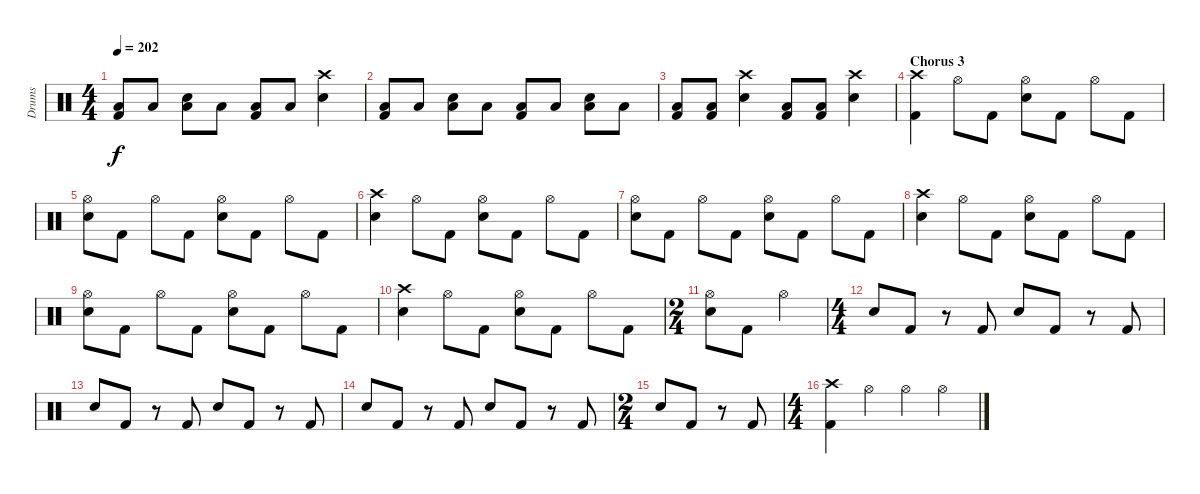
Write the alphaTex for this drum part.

\track ("Drums" "Drums") {instrument percussion}
\staff {score}
\articulation defaults
\ts (4 4)
\tempo 202
\clef neutral
\ks c
("Low Floor Tom (hit)" "Kick (hit) 2").8{dy f} "Low Floor Tom (hit)".8 ("Low Floor Tom (hit)" "Electric Snare (hit)").8 "Low Floor Tom (hit)".8 ("Low Floor Tom (hit)" "Kick (hit) 2").8 "Low Floor Tom (hit)".8 ("Crash high (hit)" "Electric Snare (hit)").4 |
("Low Floor Tom (hit)" "Kick (hit) 2").8 "Low Floor Tom (hit)".8 ("Low Floor Tom (hit)" "Electric Snare (hit)").8 "Low Floor Tom (hit)".8 ("Low Floor Tom (hit)" "Kick (hit) 2").8 "Low Floor Tom (hit)".8 ("Low Floor Tom (hit)" "Electric Snare (hit)").8 "Low Floor Tom (hit)".8 |
("Low Floor Tom (hit)" "Kick (hit) 2").8 ("Low Floor Tom (hit)" "Kick (hit) 2").8 ("Crash high (hit)" "Electric Snare (hit)").4 ("Low Floor Tom (hit)" "Kick (hit) 2").8 ("Low Floor Tom (hit)" "Kick (hit) 2").8 ("Crash high (hit)" "Electric Snare (hit)").4 |
\section ("" "Chorus 3")
("Crash high (hit)" "Kick (hit) 2").4 "Hi-Hat (open)".8 "Kick (hit) 2".8 ("Hi-Hat (open)" "Electric Snare (hit)").8 "Kick (hit) 2".8 "Hi-Hat (open)".8 "Kick (hit) 2".8 |
("Hi-Hat (open)" "Electric Snare (hit)").8 "Kick (hit) 2".8 "Hi-Hat (open)".8 "Kick (hit) 2".8 ("Hi-Hat (open)" "Electric Snare (hit)").8 "Kick (hit) 2".8 "Hi-Hat (open)".8 "Kick (hit) 2".8 |
("Crash high (hit)" "Electric Snare (hit)").4 "Hi-Hat (open)".8 "Kick (hit) 2".8 ("Hi-Hat (open)" "Electric Snare (hit)").8 "Kick (hit) 2".8 "Hi-Hat (open)".8 "Kick (hit) 2".8 |
("Hi-Hat (open)" "Electric Snare (hit)").8 "Kick (hit) 2".8 "Hi-Hat (open)".8 "Kick (hit) 2".8 ("Hi-Hat (open)" "Electric Snare (hit)").8 "Kick (hit) 2".8 "Hi-Hat (open)".8 "Kick (hit) 2".8 |
("Crash high (hit)" "Electric Snare (hit)").4 "Hi-Hat (open)".8 "Kick (hit) 2".8 ("Hi-Hat (open)" "Electric Snare (hit)").8 "Kick (hit) 2".8 "Hi-Hat (open)".8 "Kick (hit) 2".8 |
("Hi-Hat (open)" "Electric Snare (hit)").8 "Kick (hit) 2".8 "Hi-Hat (open)".8 "Kick (hit) 2".8 ("Hi-Hat (open)" "Electric Snare (hit)").8 "Kick (hit) 2".8 "Hi-Hat (open)".8 "Kick (hit) 2".8 |
("Crash high (hit)" "Electric Snare (hit)").4 "Hi-Hat (open)".8 "Kick (hit) 2".8 ("Hi-Hat (open)" "Electric Snare (hit)").8 "Kick (hit) 2".8 "Hi-Hat (open)".8 "Kick (hit) 2".8 |
\ts (2 4)
("Hi-Hat (open)" "Electric Snare (hit)").8 "Kick (hit) 2".8 "Hi-Hat (open)".4 |
\ts (4 4)
"Electric Snare (hit)".8 "Kick (hit) 2".8 r.8 "Kick (hit) 2".8 "Electric Snare (hit)".8 "Kick (hit) 2".8 r.8 "Kick (hit) 2".8 |
"Electric Snare (hit)".8 "Kick (hit) 2".8 r.8 "Kick (hit) 2".8 "Electric Snare (hit)".8 "Kick (hit) 2".8 r.8 "Kick (hit) 2".8 |
"Electric Snare (hit)".8 "Kick (hit) 2".8 r.8 "Kick (hit) 2".8 "Electric Snare (hit)".8 "Kick (hit) 2".8 r.8 "Kick (hit) 2".8 |
\ts (2 4)
"Electric Snare (hit)".8 "Kick (hit) 2".8 r.8 "Kick (hit) 2".8 |
\ts (4 4)
("Crash high (hit)" "Kick (hit) 2").4 "Hi-Hat (open)".4 "Hi-Hat (open)".4 "Hi-Hat (open)".4
